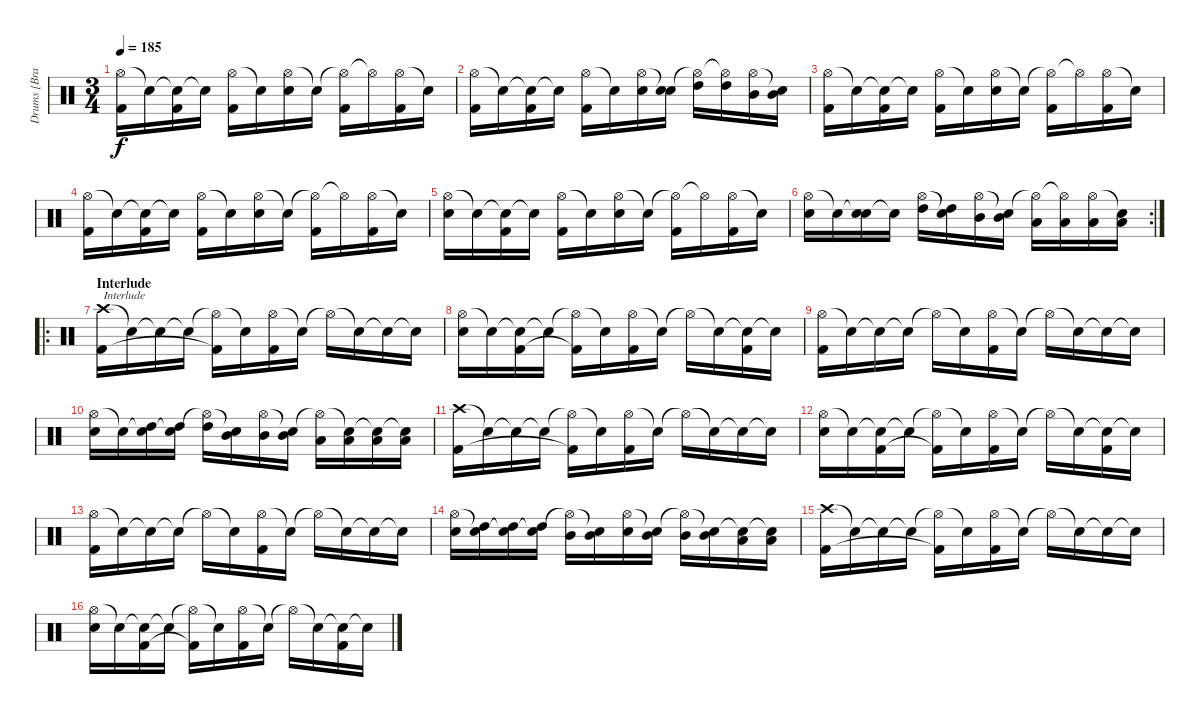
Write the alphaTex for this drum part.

\track ("Drums [Brann Dailor]" "Drums [Bra") {instrument percussion}
\staff {score}
\articulation defaults
\ts (3 4)
\tempo 185
\clef neutral
\ks c
("Hi-Hat (open)" "Kick (hit) 2").16{dy f} "Snare (hit)"{t}.16 ("Snare (hit)"{t} "Kick (hit) 2").16 "Snare (hit)"{t}.16 ("Hi-Hat (open)" "Kick (hit) 2").16 "Snare (hit)"{t}.16 ("Hi-Hat (open)" "Electric Snare (hit)").16 "Snare (hit)"{t}.16 ("Hi-Hat (open)"{t} "Kick (hit) 2").16 "Hi-Hat (open)"{t}.16 ("Hi-Hat (open)" "Kick (hit) 2").16 "Snare (hit)"{t}.16 |
("Hi-Hat (open)" "Kick (hit) 2").16 "Snare (hit)"{t}.16 ("Snare (hit)"{t} "Kick (hit) 2").16 "Snare (hit)"{t}.16 ("Hi-Hat (open)" "Kick (hit) 2").16 "Snare (hit)"{t}.16 ("Hi-Hat (open)" "Electric Snare (hit)").16 ("Snare (hit)"{t} "Electric Snare (hit)").16 ("Hi-Hat (open)"{t} "High Tom (hit)").16 ("Hi-Hat (open)"{t} "High Tom (hit)").16 ("Hi-Hat (open)" "Mid Tom (hit)").16 ("Snare (hit)"{t} "Mid Tom (hit)").16 |
("Hi-Hat (open)" "Kick (hit) 2").16 "Snare (hit)"{t}.16 ("Snare (hit)"{t} "Kick (hit) 2").16 "Snare (hit)"{t}.16 ("Hi-Hat (open)" "Kick (hit) 2").16 "Snare (hit)"{t}.16 ("Hi-Hat (open)" "Electric Snare (hit)").16 "Snare (hit)"{t}.16 ("Hi-Hat (open)"{t} "Kick (hit) 2").16 "Hi-Hat (open)"{t}.16 ("Hi-Hat (open)" "Kick (hit) 2").16 "Snare (hit)"{t}.16 |
("Hi-Hat (open)" "Kick (hit) 2").16 "Snare (hit)"{t}.16 ("Snare (hit)"{t} "Kick (hit) 2").16 "Snare (hit)"{t}.16 ("Hi-Hat (open)" "Kick (hit) 2").16 "Snare (hit)"{t}.16 ("Hi-Hat (open)" "Electric Snare (hit)").16 "Snare (hit)"{t}.16 ("Hi-Hat (open)"{t} "Kick (hit) 2").16 "Hi-Hat (open)"{t}.16 ("Hi-Hat (open)" "Kick (hit) 2").16 "Snare (hit)"{t}.16 |
("Hi-Hat (open)" "Electric Snare (hit)").16 "Snare (hit)"{t}.16 ("Snare (hit)"{t} "Kick (hit) 2").16 "Snare (hit)"{t}.16 ("Hi-Hat (open)" "Kick (hit) 2").16 "Snare (hit)"{t}.16 ("Hi-Hat (open)" "Electric Snare (hit)").16 "Snare (hit)"{t}.16 ("Hi-Hat (open)"{t} "Kick (hit) 2").16 "Hi-Hat (open)"{t}.16 ("Hi-Hat (open)" "Kick (hit) 2").16 "Snare (hit)"{t}.16 |
\rc 2
("Hi-Hat (open)" "Electric Snare (hit)").16 "Snare (hit)"{t}.16 ("Snare (hit)"{t} "Electric Snare (hit)").16 "Snare (hit)"{t}.16 ("Hi-Hat (open)" "High Tom (hit)").16 ("Snare (hit)"{t} "High Tom (hit)").16 ("Hi-Hat (open)" "Mid Tom (hit)").16 ("Snare (hit)"{t} "Mid Tom (hit)").16 ("Hi-Hat (open)"{t} "Low Tom (hit)").16 ("Hi-Hat (open)"{t} "Low Tom (hit)").16 ("Hi-Hat (open)" "Low Tom (hit)").16 ("Snare (hit)"{t} "Low Tom (hit)").16 |
\ro
\section ("" "Interlude")
("Crash high (hit)" "Kick (hit) 2").16{txt "Interlude"} "Snare (hit)"{t}.16 "Snare (hit)"{t}.16 "Snare (hit)"{t}.16 ("Hi-Hat (open)"{t} "Kick (hit) 2"{t}).16 "Snare (hit)"{t}.16 ("Hi-Hat (open)" "Kick (hit) 2").16 "Snare (hit)"{t}.16 "Hi-Hat (open)"{t}.16 "Snare (hit)"{t}.16 "Snare (hit)"{t}.16 "Snare (hit)"{t}.16 |
("Hi-Hat (open)" "Electric Snare (hit)").16 "Snare (hit)"{t}.16 ("Snare (hit)"{t} "Kick (hit) 2").16 "Snare (hit)"{t}.16 ("Hi-Hat (open)"{t} "Kick (hit) 2"{t}).16 "Snare (hit)"{t}.16 ("Hi-Hat (open)" "Kick (hit) 2").16 "Snare (hit)"{t}.16 "Hi-Hat (open)"{t}.16 "Snare (hit)"{t}.16 ("Snare (hit)"{t} "Kick (hit) 2").16 "Snare (hit)"{t}.16 |
("Hi-Hat (open)" "Kick (hit) 2").16 "Snare (hit)"{t}.16 "Snare (hit)"{t}.16 "Snare (hit)"{t}.16 "Hi-Hat (open)"{t}.16 "Snare (hit)"{t}.16 ("Hi-Hat (open)" "Kick (hit) 2").16 "Snare (hit)"{t}.16 "Hi-Hat (open)"{t}.16 "Snare (hit)"{t}.16 "Snare (hit)"{t}.16 "Snare (hit)"{t}.16 |
("Hi-Hat (open)" "Electric Snare (hit)").16 "Snare (hit)"{t}.16 ("Snare (hit)"{t} "High Tom (hit)").16 ("Snare (hit)"{t} "High Tom (hit)").16 ("Hi-Hat (open)"{t} "High Tom (hit)").16 ("Snare (hit)"{t} "Mid Tom (hit)").16 ("Hi-Hat (open)" "Mid Tom (hit)").16 ("Snare (hit)"{t} "Mid Tom (hit)").16 ("Hi-Hat (open)"{t} "Low Tom (hit)").16 ("Snare (hit)"{t} "Low Tom (hit)").16 ("Snare (hit)"{t} "Low Tom (hit)").16 ("Snare (hit)"{t} "Low Tom (hit)").16 |
("Crash high (hit)" "Kick (hit) 2").16 "Snare (hit)"{t}.16 "Snare (hit)"{t}.16 "Snare (hit)"{t}.16 ("Hi-Hat (open)"{t} "Kick (hit) 2"{t}).16 "Snare (hit)"{t}.16 ("Hi-Hat (open)" "Kick (hit) 2").16 "Snare (hit)"{t}.16 "Hi-Hat (open)"{t}.16 "Snare (hit)"{t}.16 "Snare (hit)"{t}.16 "Snare (hit)"{t}.16 |
("Hi-Hat (open)" "Electric Snare (hit)").16 "Snare (hit)"{t}.16 ("Snare (hit)"{t} "Kick (hit) 2").16 "Snare (hit)"{t}.16 ("Hi-Hat (open)"{t} "Kick (hit) 2"{t}).16 "Snare (hit)"{t}.16 ("Hi-Hat (open)" "Kick (hit) 2").16 "Snare (hit)"{t}.16 "Hi-Hat (open)"{t}.16 "Snare (hit)"{t}.16 ("Snare (hit)"{t} "Kick (hit) 2").16 "Snare (hit)"{t}.16 |
("Hi-Hat (open)" "Kick (hit) 2").16 "Snare (hit)"{t}.16 "Snare (hit)"{t}.16 "Snare (hit)"{t}.16 "Hi-Hat (open)"{t}.16 "Snare (hit)"{t}.16 ("Hi-Hat (open)" "Kick (hit) 2").16 "Snare (hit)"{t}.16 "Hi-Hat (open)"{t}.16 "Snare (hit)"{t}.16 "Snare (hit)"{t}.16 "Snare (hit)"{t}.16 |
("Hi-Hat (open)" "Electric Snare (hit)").16 ("Snare (hit)"{t} "High Tom (hit)").16 ("Snare (hit)"{t} "High Tom (hit)").16 ("Snare (hit)"{t} "High Tom (hit)").16 ("Hi-Hat (open)"{t} "Mid Tom (hit)").16 ("Snare (hit)"{t} "Mid Tom (hit)").16 ("Hi-Hat (open)" "Electric Snare (hit)").16 ("Snare (hit)"{t} "Mid Tom (hit)").16 ("Hi-Hat (open)"{t} "Mid Tom (hit)").16 ("Snare (hit)"{t} "Mid Tom (hit)").16 ("Snare (hit)"{t} "Low Tom (hit)").16 ("Snare (hit)"{t} "Low Tom (hit)").16 |
("Crash high (hit)" "Kick (hit) 2").16 "Snare (hit)"{t}.16 "Snare (hit)"{t}.16 "Snare (hit)"{t}.16 ("Hi-Hat (open)"{t} "Kick (hit) 2"{t}).16 "Snare (hit)"{t}.16 ("Hi-Hat (open)" "Kick (hit) 2").16 "Snare (hit)"{t}.16 "Hi-Hat (open)"{t}.16 "Snare (hit)"{t}.16 "Snare (hit)"{t}.16 "Snare (hit)"{t}.16 |
("Hi-Hat (open)" "Electric Snare (hit)").16 "Snare (hit)"{t}.16 ("Snare (hit)"{t} "Kick (hit) 2").16 "Snare (hit)"{t}.16 ("Hi-Hat (open)"{t} "Kick (hit) 2"{t}).16 "Snare (hit)"{t}.16 ("Hi-Hat (open)" "Kick (hit) 2").16 "Snare (hit)"{t}.16 "Hi-Hat (open)"{t}.16 "Snare (hit)"{t}.16 ("Snare (hit)"{t} "Kick (hit) 2").16 "Snare (hit)"{t}.16
